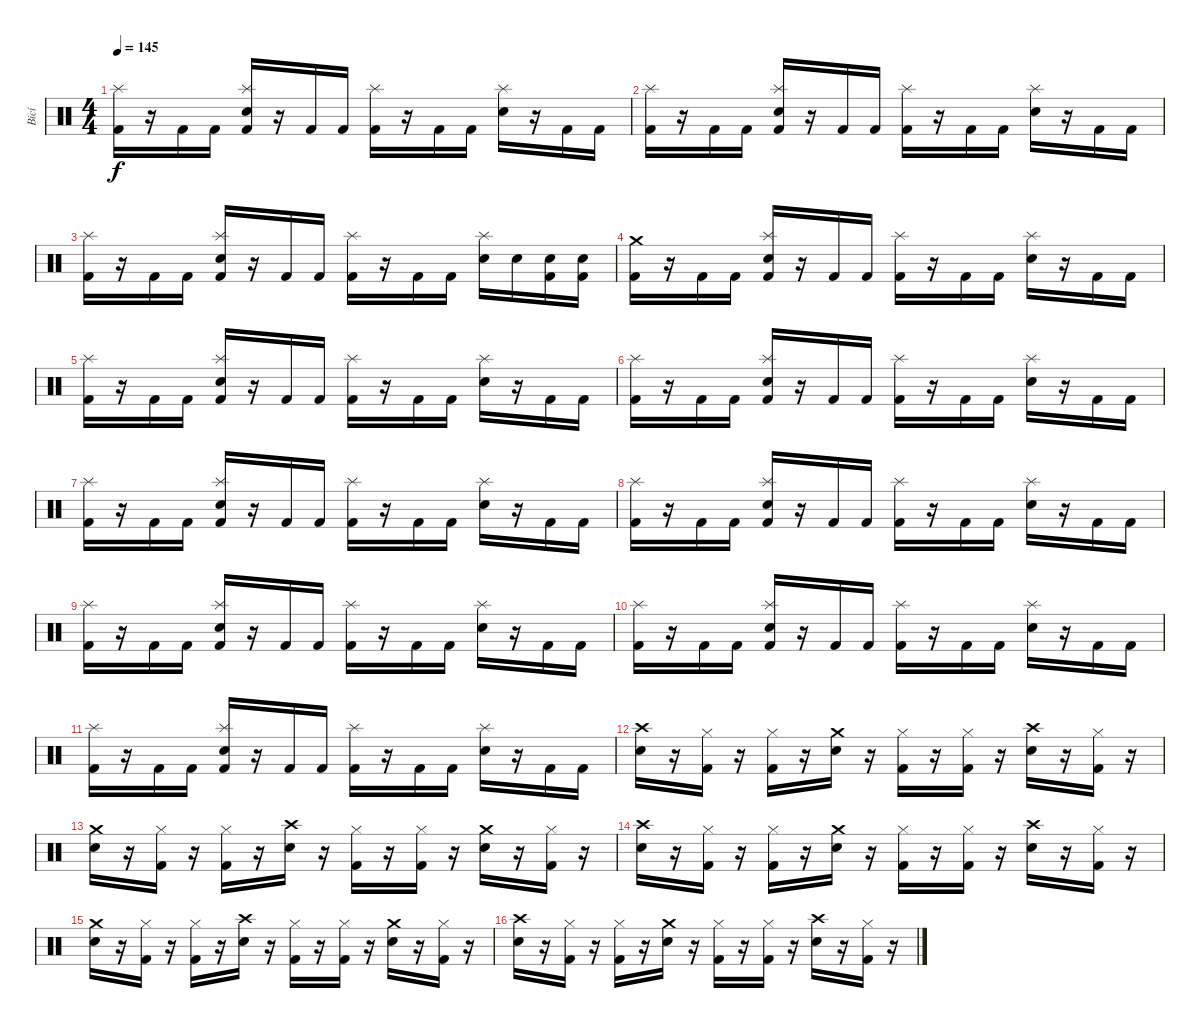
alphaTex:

\track ("Bicí" "Bicí") {instrument percussion}
\staff {score}
\articulation defaults
\ts (4 4)
\tempo 145
\clef neutral
\ks c
("Kick (hit) 2" "Splash (hit)").16{dy f} r.16 "Kick (hit) 2".16 "Kick (hit) 2".16 ("Kick (hit) 2" "Electric Snare (hit)" "Splash (hit)").16 r.16 "Kick (hit) 2".16 "Kick (hit) 2".16 ("Kick (hit) 2" "Splash (hit)").16 r.16 "Kick (hit) 2".16 "Kick (hit) 2".16 ("Electric Snare (hit)" "Splash (hit)").16 r.16 "Kick (hit) 2".16 "Kick (hit) 2".16 |
("Kick (hit) 2" "Splash (hit)").16 r.16 "Kick (hit) 2".16 "Kick (hit) 2".16 ("Kick (hit) 2" "Electric Snare (hit)" "Splash (hit)").16 r.16 "Kick (hit) 2".16 "Kick (hit) 2".16 ("Kick (hit) 2" "Splash (hit)").16 r.16 "Kick (hit) 2".16 "Kick (hit) 2".16 ("Electric Snare (hit)" "Splash (hit)").16 r.16 "Kick (hit) 2".16 "Kick (hit) 2".16 |
("Kick (hit) 2" "Splash (hit)").16 r.16 "Kick (hit) 2".16 "Kick (hit) 2".16 ("Kick (hit) 2" "Electric Snare (hit)" "Splash (hit)").16 r.16 "Kick (hit) 2".16 "Kick (hit) 2".16 ("Kick (hit) 2" "Splash (hit)").16 r.16 "Kick (hit) 2".16 "Kick (hit) 2".16 ("Electric Snare (hit)" "Splash (hit)").16 "Electric Snare (hit)".16 ("Kick (hit) 2" "Electric Snare (hit)").16 ("Kick (hit) 2" "Electric Snare (hit)").16 |
("Kick (hit) 2" "Crash medium (hit)").16 r.16 "Kick (hit) 2".16 "Kick (hit) 2".16 ("Kick (hit) 2" "Electric Snare (hit)" "Splash (hit)").16 r.16 "Kick (hit) 2".16 "Kick (hit) 2".16 ("Kick (hit) 2" "Splash (hit)").16 r.16 "Kick (hit) 2".16 "Kick (hit) 2".16 ("Electric Snare (hit)" "Splash (hit)").16 r.16 "Kick (hit) 2".16 "Kick (hit) 2".16 |
("Kick (hit) 2" "Splash (hit)").16 r.16 "Kick (hit) 2".16 "Kick (hit) 2".16 ("Kick (hit) 2" "Electric Snare (hit)" "Splash (hit)").16 r.16 "Kick (hit) 2".16 "Kick (hit) 2".16 ("Kick (hit) 2" "Splash (hit)").16 r.16 "Kick (hit) 2".16 "Kick (hit) 2".16 ("Electric Snare (hit)" "Splash (hit)").16 r.16 "Kick (hit) 2".16 "Kick (hit) 2".16 |
("Kick (hit) 2" "Splash (hit)").16 r.16 "Kick (hit) 2".16 "Kick (hit) 2".16 ("Kick (hit) 2" "Electric Snare (hit)" "Splash (hit)").16 r.16 "Kick (hit) 2".16 "Kick (hit) 2".16 ("Kick (hit) 2" "Splash (hit)").16 r.16 "Kick (hit) 2".16 "Kick (hit) 2".16 ("Electric Snare (hit)" "Splash (hit)").16 r.16 "Kick (hit) 2".16 "Kick (hit) 2".16 |
("Kick (hit) 2" "Splash (hit)").16 r.16 "Kick (hit) 2".16 "Kick (hit) 2".16 ("Kick (hit) 2" "Electric Snare (hit)" "Splash (hit)").16 r.16 "Kick (hit) 2".16 "Kick (hit) 2".16 ("Kick (hit) 2" "Splash (hit)").16 r.16 "Kick (hit) 2".16 "Kick (hit) 2".16 ("Electric Snare (hit)" "Splash (hit)").16 r.16 "Kick (hit) 2".16 "Kick (hit) 2".16 |
("Kick (hit) 2" "Splash (hit)").16 r.16 "Kick (hit) 2".16 "Kick (hit) 2".16 ("Kick (hit) 2" "Electric Snare (hit)" "Splash (hit)").16 r.16 "Kick (hit) 2".16 "Kick (hit) 2".16 ("Kick (hit) 2" "Splash (hit)").16 r.16 "Kick (hit) 2".16 "Kick (hit) 2".16 ("Electric Snare (hit)" "Splash (hit)").16 r.16 "Kick (hit) 2".16 "Kick (hit) 2".16 |
("Kick (hit) 2" "Splash (hit)").16 r.16 "Kick (hit) 2".16 "Kick (hit) 2".16 ("Kick (hit) 2" "Electric Snare (hit)" "Splash (hit)").16 r.16 "Kick (hit) 2".16 "Kick (hit) 2".16 ("Kick (hit) 2" "Splash (hit)").16 r.16 "Kick (hit) 2".16 "Kick (hit) 2".16 ("Electric Snare (hit)" "Splash (hit)").16 r.16 "Kick (hit) 2".16 "Kick (hit) 2".16 |
("Kick (hit) 2" "Splash (hit)").16 r.16 "Kick (hit) 2".16 "Kick (hit) 2".16 ("Kick (hit) 2" "Electric Snare (hit)" "Splash (hit)").16 r.16 "Kick (hit) 2".16 "Kick (hit) 2".16 ("Kick (hit) 2" "Splash (hit)").16 r.16 "Kick (hit) 2".16 "Kick (hit) 2".16 ("Electric Snare (hit)" "Splash (hit)").16 r.16 "Kick (hit) 2".16 "Kick (hit) 2".16 |
("Kick (hit) 2" "Splash (hit)").16 r.16 "Kick (hit) 2".16 "Kick (hit) 2".16 ("Kick (hit) 2" "Electric Snare (hit)" "Splash (hit)").16 r.16 "Kick (hit) 2".16 "Kick (hit) 2".16 ("Kick (hit) 2" "Splash (hit)").16 r.16 "Kick (hit) 2".16 "Kick (hit) 2".16 ("Electric Snare (hit)" "Splash (hit)").16 r.16 "Kick (hit) 2".16 "Kick (hit) 2".16 |
("Electric Snare (hit)" "Crash high (hit)").16 r.16 ("Hi-Hat (closed)" "Kick (hit) 2").16 r.16 ("Hi-Hat (closed)" "Kick (hit) 2").16 r.16 ("Electric Snare (hit)" "Crash medium (hit)").16 r.16 ("Hi-Hat (closed)" "Kick (hit) 2").16 r.16 ("Hi-Hat (closed)" "Kick (hit) 2").16 r.16 ("Electric Snare (hit)" "Crash high (hit)").16 r.16 ("Hi-Hat (closed)" "Kick (hit) 2").16 r.16 |
("Electric Snare (hit)" "Crash medium (hit)").16 r.16 ("Hi-Hat (closed)" "Kick (hit) 2").16 r.16 ("Hi-Hat (closed)" "Kick (hit) 2").16 r.16 ("Electric Snare (hit)" "Crash high (hit)").16 r.16 ("Hi-Hat (closed)" "Kick (hit) 2").16 r.16 ("Hi-Hat (closed)" "Kick (hit) 2").16 r.16 ("Electric Snare (hit)" "Crash medium (hit)").16 r.16 ("Hi-Hat (closed)" "Kick (hit) 2").16 r.16 |
("Electric Snare (hit)" "Crash high (hit)").16 r.16 ("Hi-Hat (closed)" "Kick (hit) 2").16 r.16 ("Hi-Hat (closed)" "Kick (hit) 2").16 r.16 ("Electric Snare (hit)" "Crash medium (hit)").16 r.16 ("Hi-Hat (closed)" "Kick (hit) 2").16 r.16 ("Hi-Hat (closed)" "Kick (hit) 2").16 r.16 ("Electric Snare (hit)" "Crash high (hit)").16 r.16 ("Hi-Hat (closed)" "Kick (hit) 2").16 r.16 |
("Electric Snare (hit)" "Crash medium (hit)").16 r.16 ("Hi-Hat (closed)" "Kick (hit) 2").16 r.16 ("Hi-Hat (closed)" "Kick (hit) 2").16 r.16 ("Electric Snare (hit)" "Crash high (hit)").16 r.16 ("Hi-Hat (closed)" "Kick (hit) 2").16 r.16 ("Hi-Hat (closed)" "Kick (hit) 2").16 r.16 ("Electric Snare (hit)" "Crash medium (hit)").16 r.16 ("Hi-Hat (closed)" "Kick (hit) 2").16 r.16 |
("Electric Snare (hit)" "Crash high (hit)").16 r.16 ("Hi-Hat (closed)" "Kick (hit) 2").16 r.16 ("Hi-Hat (closed)" "Kick (hit) 2").16 r.16 ("Electric Snare (hit)" "Crash medium (hit)").16 r.16 ("Hi-Hat (closed)" "Kick (hit) 2").16 r.16 ("Hi-Hat (closed)" "Kick (hit) 2").16 r.16 ("Electric Snare (hit)" "Crash high (hit)").16 r.16 ("Hi-Hat (closed)" "Kick (hit) 2").16 r.16
